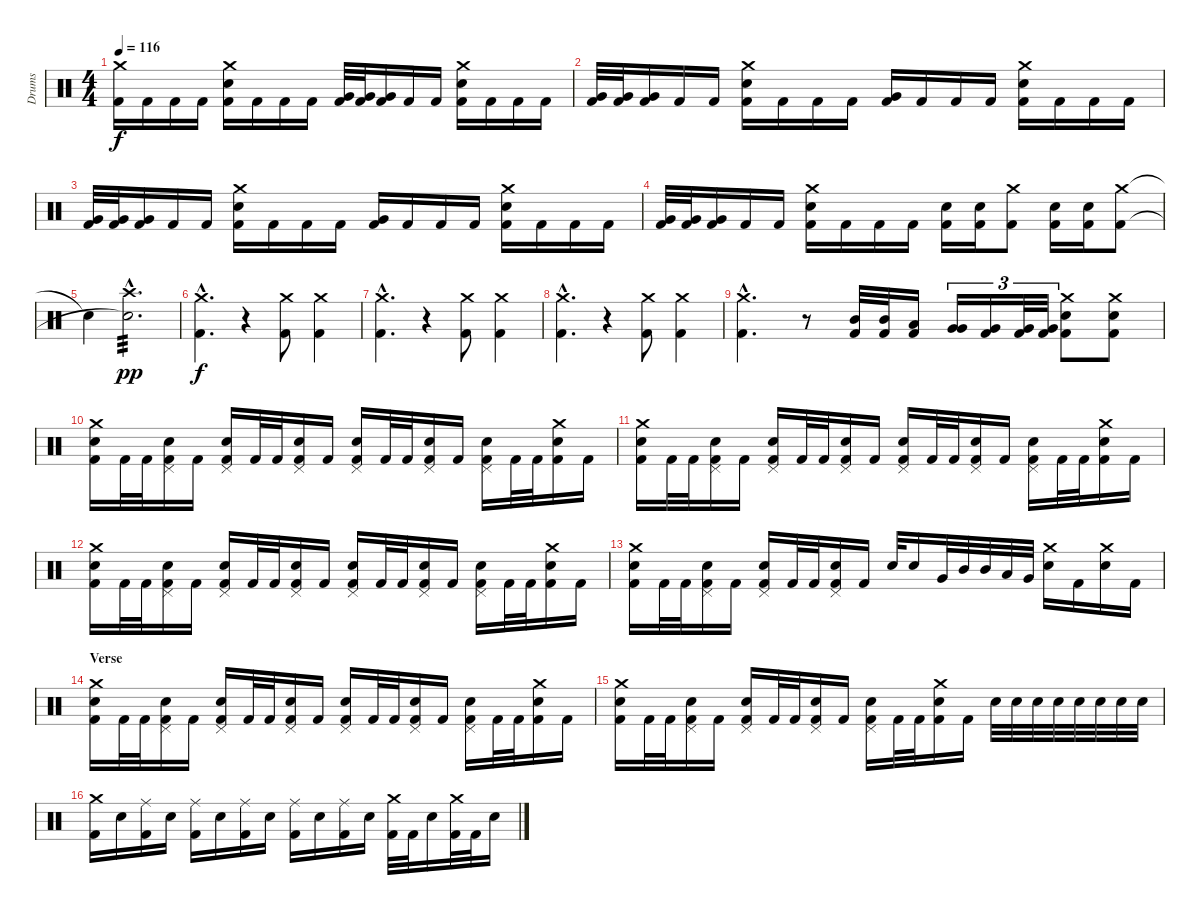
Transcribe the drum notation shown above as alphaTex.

\track ("Drums" "Drums") {instrument percussion}
\staff {score}
\articulation defaults
\ts (4 4)
\tempo 116
\clef neutral
\ks c
("Crash medium (hit)" "Kick (hit) 2").16{dy f} "Kick (hit) 2".16 "Kick (hit) 2".16 "Kick (hit) 2".16 ("Crash medium (hit)" "Electric Snare (hit)" "Kick (hit) 2").16 "Kick (hit) 2".16 "Kick (hit) 2".16 "Kick (hit) 2".16 ("Very Low Tom (hit)" "Kick (hit) 2").32 ("Very Low Tom (hit)" "Kick (hit) 2").32 ("Very Low Tom (hit)" "Kick (hit) 2").16 "Kick (hit) 2".16 "Kick (hit) 2".16 ("Crash medium (hit)" "Electric Snare (hit)" "Kick (hit) 2").16 "Kick (hit) 2".16 "Kick (hit) 2".16 "Kick (hit) 2".16 |
("Very Low Tom (hit)" "Kick (hit) 2").32 ("Very Low Tom (hit)" "Kick (hit) 2").32 ("Very Low Tom (hit)" "Kick (hit) 2").16 "Kick (hit) 2".16 "Kick (hit) 2".16 ("Crash medium (hit)" "Electric Snare (hit)" "Kick (hit) 2").16 "Kick (hit) 2".16 "Kick (hit) 2".16 "Kick (hit) 2".16 ("Very Low Tom (hit)" "Kick (hit) 2").16 "Kick (hit) 2".16 "Kick (hit) 2".16 "Kick (hit) 2".16 ("Crash medium (hit)" "Electric Snare (hit)" "Kick (hit) 2").16 "Kick (hit) 2".16 "Kick (hit) 2".16 "Kick (hit) 2".16 |
("Very Low Tom (hit)" "Kick (hit) 2").32 ("Very Low Tom (hit)" "Kick (hit) 2").32 ("Very Low Tom (hit)" "Kick (hit) 2").16 "Kick (hit) 2".16 "Kick (hit) 2".16 ("Crash medium (hit)" "Electric Snare (hit)" "Kick (hit) 2").16 "Kick (hit) 2".16 "Kick (hit) 2".16 "Kick (hit) 2".16 ("Very Low Tom (hit)" "Kick (hit) 2").16 "Kick (hit) 2".16 "Kick (hit) 2".16 "Kick (hit) 2".16 ("Crash medium (hit)" "Electric Snare (hit)" "Kick (hit) 2").16 "Kick (hit) 2".16 "Kick (hit) 2".16 "Kick (hit) 2".16 |
("Very Low Tom (hit)" "Kick (hit) 2").32 ("Very Low Tom (hit)" "Kick (hit) 2").32 ("Very Low Tom (hit)" "Kick (hit) 2").16 "Kick (hit) 2".16 "Kick (hit) 2".16 ("Crash medium (hit)" "Electric Snare (hit)" "Kick (hit) 2").16 "Kick (hit) 2".16 "Kick (hit) 2".16 "Kick (hit) 2".16 ("Electric Snare (hit)" "Kick (hit) 2").16 ("Electric Snare (hit)" "Kick (hit) 2").16 ("Crash medium (hit)" "Kick (hit) 2").8 ("Electric Snare (hit)" "Kick (hit) 2").16 ("Electric Snare (hit)" "Kick (hit) 2").16 ("Crash medium (hit)" "Kick (hit) 2").8 |
"Snare (hit)"{t}.4 ("Crash high (hit)"{hac} "Snare (hit)"{hac t}).2{d tp 3 dy pp} |
\section ("" "")
("Crash medium (hit)"{hac} "Kick (hit) 2"{hac}).4{d dy f} r.4 ("Crash medium (hit)" "Kick (hit) 2").8 ("Crash medium (hit)" "Kick (hit) 2").4 |
("Crash medium (hit)"{hac} "Kick (hit) 2"{hac}).4{d} r.4 ("Crash medium (hit)" "Kick (hit) 2").8 ("Crash medium (hit)" "Kick (hit) 2").4 |
("Crash medium (hit)"{hac} "Kick (hit) 2"{hac}).4{d} r.4 ("Crash medium (hit)" "Kick (hit) 2").8 ("Crash medium (hit)" "Kick (hit) 2").4 |
("Crash medium (hit)"{hac} "Kick (hit) 2"{hac}).4{d} r.8 ("Mid Tom (hit)" "Kick (hit) 2").32 ("Mid Tom (hit)" "Kick (hit) 2").32 ("Low Tom (hit)" "Kick (hit) 2").16 ("Very Low Tom (hit)" "Very Low Tom (hit)").16{tu (3 2)} ("Very Low Tom (hit)" "Kick (hit) 2").16{tu (3 2)} ("Very Low Tom (hit)" "Kick (hit) 2").32{tu (3 2)} ("Very Low Tom (hit)" "Kick (hit) 2").32{tu (3 2)} ("Crash medium (hit)" "Electric Snare (hit)" "Kick (hit) 2").8 ("Crash medium (hit)" "Electric Snare (hit)" "Kick (hit) 2").8 |
("Crash medium (hit)" "Electric Snare (hit)" "Kick (hit) 2").16 "Kick (hit) 2".32 "Kick (hit) 2".32 ("Pedal Hi-Hat (hit)" "Electric Snare (hit)" "Kick (hit) 2").16 "Kick (hit) 2".16 ("Pedal Hi-Hat (hit)" "Electric Snare (hit)" "Kick (hit) 2").16 "Kick (hit) 2".32 "Kick (hit) 2".32 ("Pedal Hi-Hat (hit)" "Electric Snare (hit)" "Kick (hit) 2").16 "Kick (hit) 2".16 ("Pedal Hi-Hat (hit)" "Electric Snare (hit)" "Kick (hit) 2").16 "Kick (hit) 2".32 "Kick (hit) 2".32 ("Pedal Hi-Hat (hit)" "Electric Snare (hit)" "Kick (hit) 2").16 "Kick (hit) 2".16 ("Pedal Hi-Hat (hit)" "Electric Snare (hit)" "Kick (hit) 2").16 "Kick (hit) 2".32 "Kick (hit) 2".32 ("Crash medium (hit)" "Electric Snare (hit)" "Kick (hit) 2").16 "Kick (hit) 2".16 |
("Crash medium (hit)" "Electric Snare (hit)" "Kick (hit) 2").16 "Kick (hit) 2".32 "Kick (hit) 2".32 ("Pedal Hi-Hat (hit)" "Electric Snare (hit)" "Kick (hit) 2").16 "Kick (hit) 2".16 ("Pedal Hi-Hat (hit)" "Electric Snare (hit)" "Kick (hit) 2").16 "Kick (hit) 2".32 "Kick (hit) 2".32 ("Pedal Hi-Hat (hit)" "Electric Snare (hit)" "Kick (hit) 2").16 "Kick (hit) 2".16 ("Pedal Hi-Hat (hit)" "Electric Snare (hit)" "Kick (hit) 2").16 "Kick (hit) 2".32 "Kick (hit) 2".32 ("Pedal Hi-Hat (hit)" "Electric Snare (hit)" "Kick (hit) 2").16 "Kick (hit) 2".16 ("Pedal Hi-Hat (hit)" "Electric Snare (hit)" "Kick (hit) 2").16 "Kick (hit) 2".32 "Kick (hit) 2".32 ("Crash medium (hit)" "Electric Snare (hit)" "Kick (hit) 2").16 "Kick (hit) 2".16 |
("Crash medium (hit)" "Electric Snare (hit)" "Kick (hit) 2").16 "Kick (hit) 2".32 "Kick (hit) 2".32 ("Pedal Hi-Hat (hit)" "Electric Snare (hit)" "Kick (hit) 2").16 "Kick (hit) 2".16 ("Pedal Hi-Hat (hit)" "Electric Snare (hit)" "Kick (hit) 2").16 "Kick (hit) 2".32 "Kick (hit) 2".32 ("Pedal Hi-Hat (hit)" "Electric Snare (hit)" "Kick (hit) 2").16 "Kick (hit) 2".16 ("Pedal Hi-Hat (hit)" "Electric Snare (hit)" "Kick (hit) 2").16 "Kick (hit) 2".32 "Kick (hit) 2".32 ("Pedal Hi-Hat (hit)" "Electric Snare (hit)" "Kick (hit) 2").16 "Kick (hit) 2".16 ("Pedal Hi-Hat (hit)" "Electric Snare (hit)" "Kick (hit) 2").16 "Kick (hit) 2".32 "Kick (hit) 2".32 ("Crash medium (hit)" "Electric Snare (hit)" "Kick (hit) 2").16 "Kick (hit) 2".16 |
("Crash medium (hit)" "Electric Snare (hit)" "Kick (hit) 2").16 "Kick (hit) 2".32 "Kick (hit) 2".32 ("Pedal Hi-Hat (hit)" "Electric Snare (hit)" "Kick (hit) 2").16 "Kick (hit) 2".16 ("Pedal Hi-Hat (hit)" "Electric Snare (hit)" "Kick (hit) 2").16 "Kick (hit) 2".32 "Kick (hit) 2".32 ("Pedal Hi-Hat (hit)" "Electric Snare (hit)" "Kick (hit) 2").16 "Kick (hit) 2".16 "Electric Snare (hit)".32 "Electric Snare (hit)".16 "Very Low Tom (hit)".32 "Mid Tom (hit)".32 "Mid Tom (hit)".32 "Low Tom (hit)".32 "Very Low Tom (hit)".32 ("Crash medium (hit)" "Electric Snare (hit)").16 "Kick (hit) 2".16 ("Crash medium (hit)" "Electric Snare (hit)").16 "Kick (hit) 2".16 |
\section ("" "Verse")
("Crash medium (hit)" "Electric Snare (hit)" "Kick (hit) 2").16 "Kick (hit) 2".32 "Kick (hit) 2".32 ("Pedal Hi-Hat (hit)" "Electric Snare (hit)" "Kick (hit) 2").16 "Kick (hit) 2".16 ("Pedal Hi-Hat (hit)" "Electric Snare (hit)" "Kick (hit) 2").16 "Kick (hit) 2".32 "Kick (hit) 2".32 ("Pedal Hi-Hat (hit)" "Electric Snare (hit)" "Kick (hit) 2").16 "Kick (hit) 2".16 ("Pedal Hi-Hat (hit)" "Electric Snare (hit)" "Kick (hit) 2").16 "Kick (hit) 2".32 "Kick (hit) 2".32 ("Pedal Hi-Hat (hit)" "Electric Snare (hit)" "Kick (hit) 2").16 "Kick (hit) 2".16 ("Pedal Hi-Hat (hit)" "Electric Snare (hit)" "Kick (hit) 2").16 "Kick (hit) 2".32 "Kick (hit) 2".32 ("Crash medium (hit)" "Electric Snare (hit)" "Kick (hit) 2").16 "Kick (hit) 2".16 |
("Crash medium (hit)" "Electric Snare (hit)" "Kick (hit) 2").16 "Kick (hit) 2".32 "Kick (hit) 2".32 ("Pedal Hi-Hat (hit)" "Electric Snare (hit)" "Kick (hit) 2").16 "Kick (hit) 2".16 ("Pedal Hi-Hat (hit)" "Electric Snare (hit)" "Kick (hit) 2").16 "Kick (hit) 2".32 "Kick (hit) 2".32 ("Pedal Hi-Hat (hit)" "Electric Snare (hit)" "Kick (hit) 2").16 "Kick (hit) 2".16 ("Pedal Hi-Hat (hit)" "Electric Snare (hit)" "Kick (hit) 2").16 "Kick (hit) 2".32 "Kick (hit) 2".32 ("Crash medium (hit)" "Electric Snare (hit)" "Kick (hit) 2").16 "Kick (hit) 2".16 "Electric Snare (hit)".32 "Electric Snare (hit)".32 "Electric Snare (hit)".32 "Electric Snare (hit)".32 "Electric Snare (hit)".32 "Electric Snare (hit)".32 "Electric Snare (hit)".32 "Electric Snare (hit)".32 |
("Crash medium (hit)" "Kick (hit) 2").16 "Electric Snare (hit)".16 ("Ride (middle)" "Kick (hit) 2").16 "Electric Snare (hit)".16 ("Ride (middle)" "Kick (hit) 2").16 "Electric Snare (hit)".16 ("Ride (middle)" "Kick (hit) 2").16 "Electric Snare (hit)".16 ("Ride (middle)" "Kick (hit) 2").16 "Electric Snare (hit)".16 ("Ride (middle)" "Kick (hit) 2").16 "Electric Snare (hit)".16 ("Crash medium (hit)" "Kick (hit) 2").32 "Kick (hit) 2".32 "Electric Snare (hit)".16 ("Crash medium (hit)" "Kick (hit) 2").32 "Kick (hit) 2".32 "Electric Snare (hit)".16
